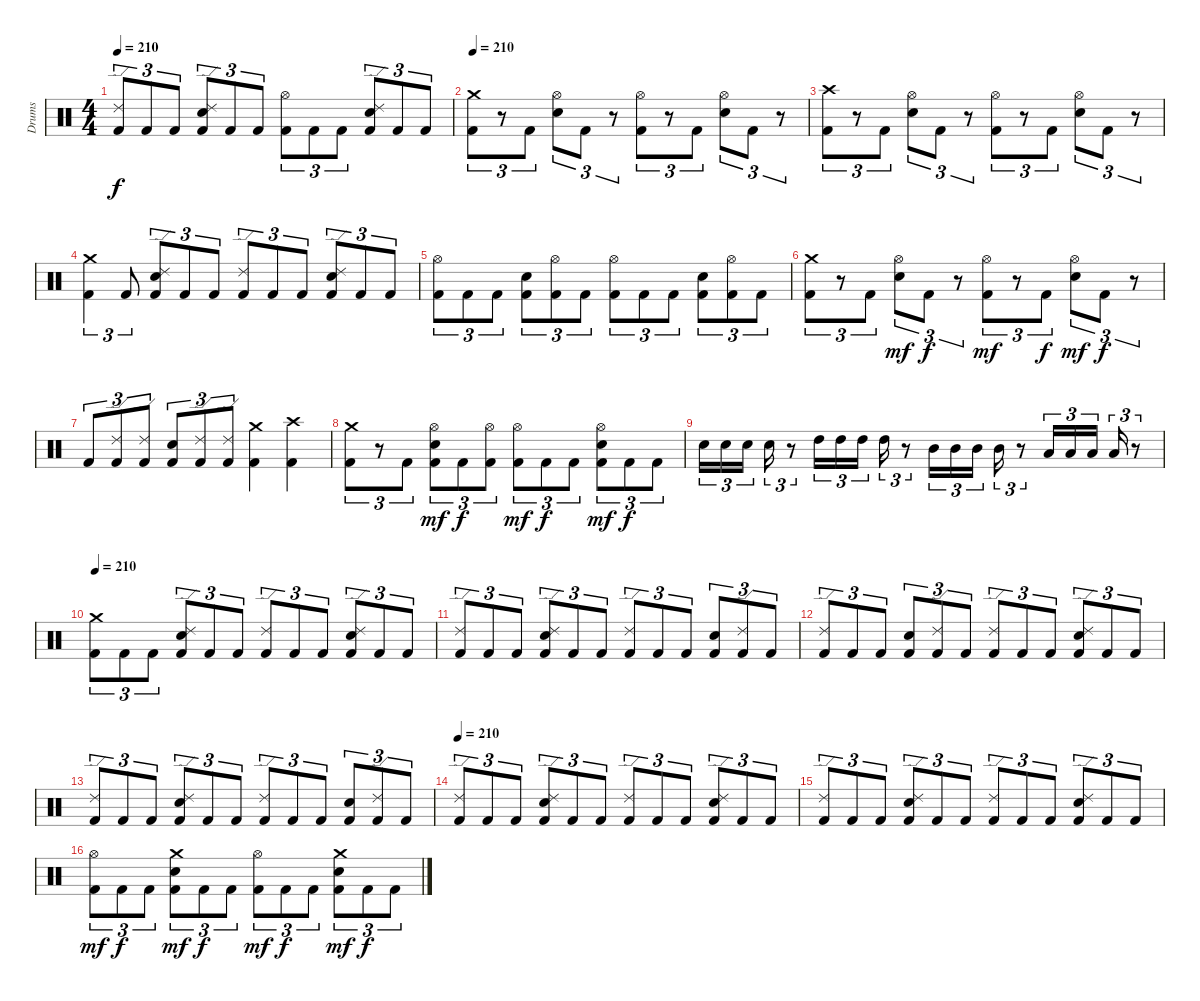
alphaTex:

\track ("Drums" "Drums") {instrument percussion}
\staff {score}
\articulation defaults
\ts (4 4)
\tempo 210
\clef neutral
\ks c
("Ride (edge) 2" "Kick (hit) 2").8{tu (3 2) dy f} "Kick (hit) 2".8{tu (3 2)} "Kick (hit) 2".8{tu (3 2)} ("Ride (edge) 2" "Electric Snare (hit)" "Kick (hit) 2").8{tu (3 2)} "Kick (hit) 2".8{tu (3 2)} "Kick (hit) 2".8{tu (3 2)} ("Hi-Hat (open)" "Kick (hit) 2").8{tu (3 2)} "Kick (hit) 2".8{tu (3 2)} "Kick (hit) 2".8{tu (3 2)} ("Ride (edge) 2" "Electric Snare (hit)" "Kick (hit) 2").8{tu (3 2)} "Kick (hit) 2".8{tu (3 2)} "Kick (hit) 2".8{tu (3 2)} |
\tempo 210
("Crash medium (hit)" "Kick (hit) 2").8{tu (3 2)} r.8{tu (3 2)} "Kick (hit) 2".8{tu (3 2)} ("Hi-Hat (open)" "Electric Snare (hit)").8{tu (3 2)} "Kick (hit) 2".8{tu (3 2)} r.8{tu (3 2)} ("Hi-Hat (open)" "Kick (hit) 2").8{tu (3 2)} r.8{tu (3 2)} "Kick (hit) 2".8{tu (3 2)} ("Hi-Hat (open)" "Electric Snare (hit)").8{tu (3 2)} "Kick (hit) 2".8{tu (3 2)} r.8{tu (3 2)} |
("Crash high (hit)" "Kick (hit) 2").8{tu (3 2)} r.8{tu (3 2)} "Kick (hit) 2".8{tu (3 2)} ("Hi-Hat (open)" "Electric Snare (hit)").8{tu (3 2)} "Kick (hit) 2".8{tu (3 2)} r.8{tu (3 2)} ("Hi-Hat (open)" "Kick (hit) 2").8{tu (3 2)} r.8{tu (3 2)} "Kick (hit) 2".8{tu (3 2)} ("Hi-Hat (open)" "Electric Snare (hit)").8{tu (3 2)} "Kick (hit) 2".8{tu (3 2)} r.8{tu (3 2)} |
("Crash medium (hit)" "Kick (hit) 2").4{tu (3 2)} "Kick (hit) 2".8{tu (3 2)} ("Ride (edge) 2" "Electric Snare (hit)" "Kick (hit) 2").8{tu (3 2)} "Kick (hit) 2".8{tu (3 2)} "Kick (hit) 2".8{tu (3 2)} ("Ride (edge) 2" "Kick (hit) 2").8{tu (3 2)} "Kick (hit) 2".8{tu (3 2)} "Kick (hit) 2".8{tu (3 2)} ("Ride (edge) 2" "Electric Snare (hit)" "Kick (hit) 2").8{tu (3 2)} "Kick (hit) 2".8{tu (3 2)} "Kick (hit) 2".8{tu (3 2)} |
("Hi-Hat (open)" "Kick (hit) 2").8{tu (3 2)} "Kick (hit) 2".8{tu (3 2)} "Kick (hit) 2".8{tu (3 2)} ("Electric Snare (hit)" "Kick (hit) 2").8{tu (3 2)} ("Hi-Hat (open)" "Kick (hit) 2").8{tu (3 2)} "Kick (hit) 2".8{tu (3 2)} ("Hi-Hat (open)" "Kick (hit) 2").8{tu (3 2)} "Kick (hit) 2".8{tu (3 2)} "Kick (hit) 2".8{tu (3 2)} ("Electric Snare (hit)" "Kick (hit) 2").8{tu (3 2)} ("Hi-Hat (open)" "Kick (hit) 2").8{tu (3 2)} "Kick (hit) 2".8{tu (3 2)} |
("Crash medium (hit)" "Kick (hit) 2").8{tu (3 2)} r.8{tu (3 2)} "Kick (hit) 2".8{tu (3 2)} ("Hi-Hat (open)" "Electric Snare (hit)").8{tu (3 2) dy mf} "Kick (hit) 2".8{tu (3 2) dy f} r.8{tu (3 2)} ("Hi-Hat (open)" "Kick (hit) 2").8{tu (3 2) dy mf} r.8{tu (3 2)} "Kick (hit) 2".8{tu (3 2) dy f} ("Hi-Hat (open)" "Electric Snare (hit)").8{tu (3 2) dy mf} "Kick (hit) 2".8{tu (3 2) dy f} r.8{tu (3 2)} |
"Kick (hit) 2".8{tu (3 2)} ("Ride (edge) 2" "Kick (hit) 2").8{tu (3 2)} ("Ride (edge) 2" "Kick (hit) 2").8{tu (3 2)} ("Electric Snare (hit)" "Kick (hit) 2").8{tu (3 2)} ("Ride (edge) 2" "Kick (hit) 2").8{tu (3 2)} ("Ride (edge) 2" "Kick (hit) 2").8{tu (3 2)} ("Crash medium (hit)" "Kick (hit) 2").4 ("Crash high (hit)" "Kick (hit) 2").4 |
("Crash medium (hit)" "Kick (hit) 2").8{tu (3 2)} r.8{tu (3 2)} "Kick (hit) 2".8{tu (3 2)} ("Hi-Hat (open)" "Electric Snare (hit)" "Kick (hit) 2").8{tu (3 2) dy mf} "Kick (hit) 2".8{tu (3 2) dy f} ("Hi-Hat (open)" "Kick (hit) 2").8{tu (3 2)} ("Hi-Hat (open)" "Kick (hit) 2").8{tu (3 2) dy mf} "Kick (hit) 2".8{tu (3 2) dy f} "Kick (hit) 2".8{tu (3 2)} ("Hi-Hat (open)" "Electric Snare (hit)" "Kick (hit) 2").8{tu (3 2) dy mf} "Kick (hit) 2".8{tu (3 2) dy f} "Kick (hit) 2".8{tu (3 2)} |
"Electric Snare (hit)".16{tu (3 2)} "Electric Snare (hit)".16{tu (3 2)} "Electric Snare (hit)".16{tu (3 2)} "Electric Snare (hit)".16{tu (3 2)} r.8{tu (3 2)} "High Tom (hit)".16{tu (3 2)} "High Tom (hit)".16{tu (3 2)} "High Tom (hit)".16{tu (3 2)} "High Tom (hit)".16{tu (3 2)} r.8{tu (3 2)} "Mid Tom (hit)".16{tu (3 2)} "Mid Tom (hit)".16{tu (3 2)} "Mid Tom (hit)".16{tu (3 2)} "Mid Tom (hit)".16{tu (3 2)} r.8{tu (3 2)} "Low Tom (hit)".16{tu (3 2)} "Low Tom (hit)".16{tu (3 2)} "Low Tom (hit)".16{tu (3 2)} "Low Tom (hit)".16{tu (3 2)} r.8{tu (3 2)} |
\tempo 210
("Crash medium (hit)" "Kick (hit) 2").8{tu (3 2)} "Kick (hit) 2".8{tu (3 2)} "Kick (hit) 2".8{tu (3 2)} ("Ride (edge) 2" "Electric Snare (hit)" "Kick (hit) 2").8{tu (3 2)} "Kick (hit) 2".8{tu (3 2)} "Kick (hit) 2".8{tu (3 2)} ("Ride (edge) 2" "Kick (hit) 2").8{tu (3 2)} "Kick (hit) 2".8{tu (3 2)} "Kick (hit) 2".8{tu (3 2)} ("Ride (edge) 2" "Electric Snare (hit)" "Kick (hit) 2").8{tu (3 2)} "Kick (hit) 2".8{tu (3 2)} "Kick (hit) 2".8{tu (3 2)} |
("Ride (edge) 2" "Kick (hit) 2").8{tu (3 2)} "Kick (hit) 2".8{tu (3 2)} "Kick (hit) 2".8{tu (3 2)} ("Ride (edge) 2" "Electric Snare (hit)" "Kick (hit) 2").8{tu (3 2)} "Kick (hit) 2".8{tu (3 2)} "Kick (hit) 2".8{tu (3 2)} ("Ride (edge) 2" "Kick (hit) 2").8{tu (3 2)} "Kick (hit) 2".8{tu (3 2)} "Kick (hit) 2".8{tu (3 2)} ("Electric Snare (hit)" "Kick (hit) 2").8{tu (3 2)} ("Ride (edge) 2" "Kick (hit) 2").8{tu (3 2)} "Kick (hit) 2".8{tu (3 2)} |
("Ride (edge) 2" "Kick (hit) 2").8{tu (3 2)} "Kick (hit) 2".8{tu (3 2)} "Kick (hit) 2".8{tu (3 2)} ("Electric Snare (hit)" "Kick (hit) 2").8{tu (3 2)} ("Ride (edge) 2" "Kick (hit) 2").8{tu (3 2)} "Kick (hit) 2".8{tu (3 2)} ("Ride (edge) 2" "Kick (hit) 2").8{tu (3 2)} "Kick (hit) 2".8{tu (3 2)} "Kick (hit) 2".8{tu (3 2)} ("Ride (edge) 2" "Electric Snare (hit)" "Kick (hit) 2").8{tu (3 2)} "Kick (hit) 2".8{tu (3 2)} "Kick (hit) 2".8{tu (3 2)} |
("Ride (edge) 2" "Kick (hit) 2").8{tu (3 2)} "Kick (hit) 2".8{tu (3 2)} "Kick (hit) 2".8{tu (3 2)} ("Ride (edge) 2" "Electric Snare (hit)" "Kick (hit) 2").8{tu (3 2)} "Kick (hit) 2".8{tu (3 2)} "Kick (hit) 2".8{tu (3 2)} ("Ride (edge) 2" "Kick (hit) 2").8{tu (3 2)} "Kick (hit) 2".8{tu (3 2)} "Kick (hit) 2".8{tu (3 2)} ("Electric Snare (hit)" "Kick (hit) 2").8{tu (3 2)} ("Ride (edge) 2" "Kick (hit) 2").8{tu (3 2)} "Kick (hit) 2".8{tu (3 2)} |
\tempo 210
("Ride (edge) 2" "Kick (hit) 2").8{tu (3 2)} "Kick (hit) 2".8{tu (3 2)} "Kick (hit) 2".8{tu (3 2)} ("Ride (edge) 2" "Electric Snare (hit)" "Kick (hit) 2").8{tu (3 2)} "Kick (hit) 2".8{tu (3 2)} "Kick (hit) 2".8{tu (3 2)} ("Ride (edge) 2" "Kick (hit) 2").8{tu (3 2)} "Kick (hit) 2".8{tu (3 2)} "Kick (hit) 2".8{tu (3 2)} ("Ride (edge) 2" "Electric Snare (hit)" "Kick (hit) 2").8{tu (3 2)} "Kick (hit) 2".8{tu (3 2)} "Kick (hit) 2".8{tu (3 2)} |
("Ride (edge) 2" "Kick (hit) 2").8{tu (3 2)} "Kick (hit) 2".8{tu (3 2)} "Kick (hit) 2".8{tu (3 2)} ("Ride (edge) 2" "Electric Snare (hit)" "Kick (hit) 2").8{tu (3 2)} "Kick (hit) 2".8{tu (3 2)} "Kick (hit) 2".8{tu (3 2)} ("Ride (edge) 2" "Kick (hit) 2").8{tu (3 2)} "Kick (hit) 2".8{tu (3 2)} "Kick (hit) 2".8{tu (3 2)} ("Ride (edge) 2" "Electric Snare (hit)" "Kick (hit) 2").8{tu (3 2)} "Kick (hit) 2".8{tu (3 2)} "Kick (hit) 2".8{tu (3 2)} |
("Hi-Hat (open)" "Kick (hit) 2").8{tu (3 2) dy mf} "Kick (hit) 2".8{tu (3 2) dy f} "Kick (hit) 2".8{tu (3 2)} ("Crash medium (hit)" "Electric Snare (hit)" "Kick (hit) 2").8{tu (3 2) dy mf} "Kick (hit) 2".8{tu (3 2) dy f} "Kick (hit) 2".8{tu (3 2)} ("Hi-Hat (open)" "Kick (hit) 2").8{tu (3 2) dy mf} "Kick (hit) 2".8{tu (3 2) dy f} "Kick (hit) 2".8{tu (3 2)} ("Crash medium (hit)" "Electric Snare (hit)" "Kick (hit) 2").8{tu (3 2) dy mf} "Kick (hit) 2".8{tu (3 2) dy f} "Kick (hit) 2".8{tu (3 2)}
